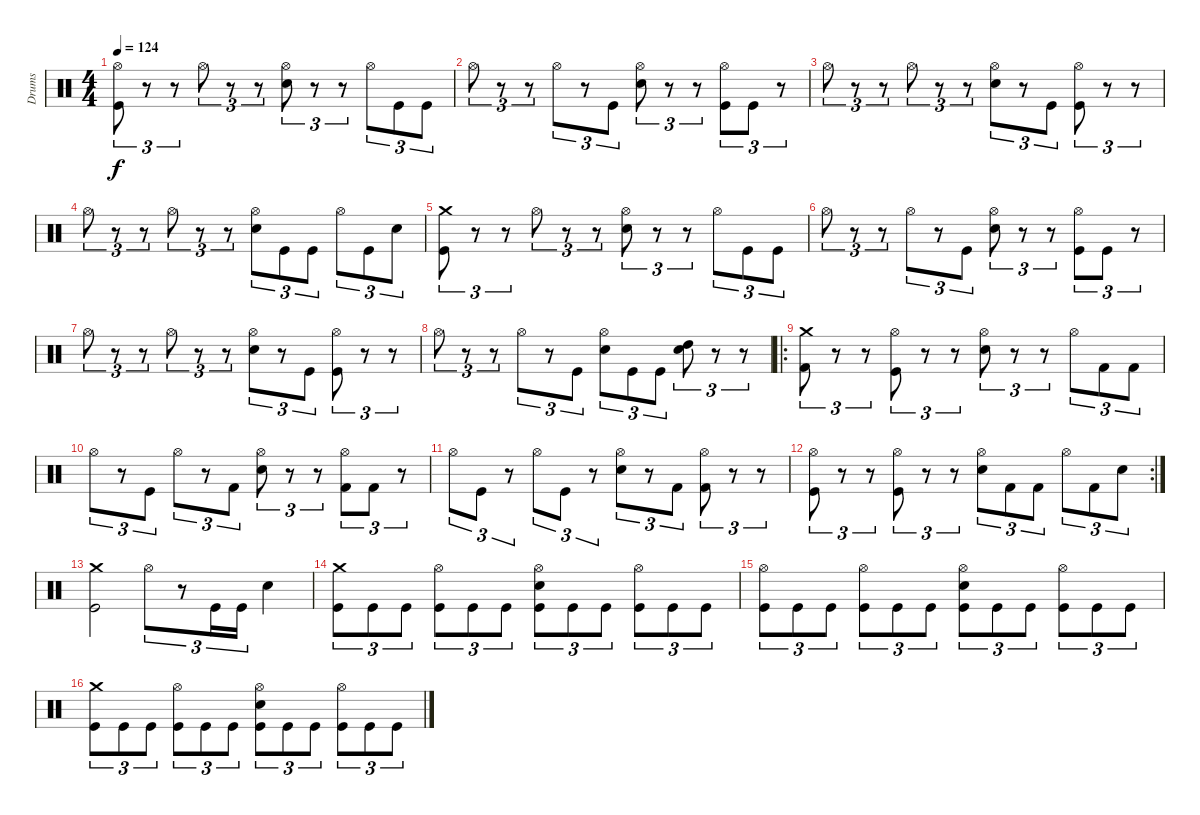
\track ("Drums" "Drums") {instrument percussion}
\staff {score}
\articulation defaults
\ts (4 4)
\tempo 124
\clef neutral
\ks c
("Hi-Hat (open)" "Kick (hit)").8{tu (3 2) dy f} r.8{tu (3 2)} r.8{tu (3 2)} "Hi-Hat (open)".8{tu (3 2)} r.8{tu (3 2)} r.8{tu (3 2)} ("Hi-Hat (open)" "Electric Snare (hit)").8{tu (3 2)} r.8{tu (3 2)} r.8{tu (3 2)} "Hi-Hat (open)".8{tu (3 2)} "Kick (hit)".8{tu (3 2)} "Kick (hit)".8{tu (3 2)} |
"Hi-Hat (open)".8{tu (3 2)} r.8{tu (3 2)} r.8{tu (3 2)} "Hi-Hat (open)".8{tu (3 2)} r.8{tu (3 2)} "Kick (hit)".8{tu (3 2)} ("Hi-Hat (open)" "Electric Snare (hit)").8{tu (3 2)} r.8{tu (3 2)} r.8{tu (3 2)} ("Hi-Hat (open)" "Kick (hit)").8{tu (3 2)} "Kick (hit)".8{tu (3 2)} r.8{tu (3 2)} |
"Hi-Hat (open)".8{tu (3 2)} r.8{tu (3 2)} r.8{tu (3 2)} "Hi-Hat (open)".8{tu (3 2)} r.8{tu (3 2)} r.8{tu (3 2)} ("Hi-Hat (open)" "Electric Snare (hit)").8{tu (3 2)} r.8{tu (3 2)} "Kick (hit)".8{tu (3 2)} ("Hi-Hat (open)" "Kick (hit)").8{tu (3 2)} r.8{tu (3 2)} r.8{tu (3 2)} |
"Hi-Hat (open)".8{tu (3 2)} r.8{tu (3 2)} r.8{tu (3 2)} "Hi-Hat (open)".8{tu (3 2)} r.8{tu (3 2)} r.8{tu (3 2)} ("Hi-Hat (open)" "Electric Snare (hit)").8{tu (3 2)} "Kick (hit)".8{tu (3 2)} "Kick (hit)".8{tu (3 2)} "Hi-Hat (open)".8{tu (3 2)} "Kick (hit)".8{tu (3 2)} "Electric Snare (hit)".8{tu (3 2)} |
("Crash medium (hit)" "Kick (hit)").8{tu (3 2)} r.8{tu (3 2)} r.8{tu (3 2)} "Hi-Hat (open)".8{tu (3 2)} r.8{tu (3 2)} r.8{tu (3 2)} ("Hi-Hat (open)" "Electric Snare (hit)").8{tu (3 2)} r.8{tu (3 2)} r.8{tu (3 2)} "Hi-Hat (open)".8{tu (3 2)} "Kick (hit)".8{tu (3 2)} "Kick (hit)".8{tu (3 2)} |
"Hi-Hat (open)".8{tu (3 2)} r.8{tu (3 2)} r.8{tu (3 2)} "Hi-Hat (open)".8{tu (3 2)} r.8{tu (3 2)} "Kick (hit)".8{tu (3 2)} ("Hi-Hat (open)" "Electric Snare (hit)").8{tu (3 2)} r.8{tu (3 2)} r.8{tu (3 2)} ("Hi-Hat (open)" "Kick (hit)").8{tu (3 2)} "Kick (hit)".8{tu (3 2)} r.8{tu (3 2)} |
"Hi-Hat (open)".8{tu (3 2)} r.8{tu (3 2)} r.8{tu (3 2)} "Hi-Hat (open)".8{tu (3 2)} r.8{tu (3 2)} r.8{tu (3 2)} ("Hi-Hat (open)" "Electric Snare (hit)").8{tu (3 2)} r.8{tu (3 2)} "Kick (hit)".8{tu (3 2)} ("Hi-Hat (open)" "Kick (hit)").8{tu (3 2)} r.8{tu (3 2)} r.8{tu (3 2)} |
"Hi-Hat (open)".8{tu (3 2)} r.8{tu (3 2)} r.8{tu (3 2)} "Hi-Hat (open)".8{tu (3 2)} r.8{tu (3 2)} "Kick (hit)".8{tu (3 2)} ("Hi-Hat (open)" "Electric Snare (hit)").8{tu (3 2)} "Kick (hit)".8{tu (3 2)} "Kick (hit)".8{tu (3 2)} ("High Tom (hit)" "Electric Snare (hit)").8{tu (3 2)} r.8{tu (3 2)} r.8{tu (3 2)} |
\ro
("Crash medium (hit)" "Kick (hit) 2").8{tu (3 2)} r.8{tu (3 2)} r.8{tu (3 2)} ("Hi-Hat (open)" "Kick (hit)").8{tu (3 2)} r.8{tu (3 2)} r.8{tu (3 2)} ("Hi-Hat (open)" "Electric Snare (hit)").8{tu (3 2)} r.8{tu (3 2)} r.8{tu (3 2)} "Hi-Hat (open)".8{tu (3 2)} "Kick (hit) 2".8{tu (3 2)} "Kick (hit) 2".8{tu (3 2)} |
"Hi-Hat (open)".8{tu (3 2)} r.8{tu (3 2)} "Kick (hit)".8{tu (3 2)} "Hi-Hat (open)".8{tu (3 2)} r.8{tu (3 2)} "Kick (hit) 2".8{tu (3 2)} ("Hi-Hat (open)" "Electric Snare (hit)").8{tu (3 2)} r.8{tu (3 2)} r.8{tu (3 2)} ("Hi-Hat (open)" "Kick (hit) 2").8{tu (3 2)} "Kick (hit) 2".8{tu (3 2)} r.8{tu (3 2)} |
"Hi-Hat (open)".8{tu (3 2)} "Kick (hit)".8{tu (3 2)} r.8{tu (3 2)} "Hi-Hat (open)".8{tu (3 2)} "Kick (hit)".8{tu (3 2)} r.8{tu (3 2)} ("Hi-Hat (open)" "Electric Snare (hit)").8{tu (3 2)} r.8{tu (3 2)} "Kick (hit) 2".8{tu (3 2)} ("Hi-Hat (open)" "Kick (hit) 2").8{tu (3 2)} r.8{tu (3 2)} r.8{tu (3 2)} |
\rc 2
("Hi-Hat (open)" "Kick (hit)").8{tu (3 2)} r.8{tu (3 2)} r.8{tu (3 2)} ("Hi-Hat (open)" "Kick (hit)").8{tu (3 2)} r.8{tu (3 2)} r.8{tu (3 2)} ("Hi-Hat (open)" "Electric Snare (hit)").8{tu (3 2)} "Kick (hit) 2".8{tu (3 2)} "Kick (hit) 2".8{tu (3 2)} "Hi-Hat (open)".8{tu (3 2)} "Kick (hit) 2".8{tu (3 2)} "Electric Snare (hit)".8{tu (3 2)} |
("Crash medium (hit)" "Kick (hit)").2 "Hi-Hat (open)".8{tu (3 2)} r.8{tu (3 2)} "Kick (hit)".16{tu (3 2)} "Kick (hit)".16{tu (3 2)} "Electric Snare (hit)".4 |
("Crash medium (hit)" "Kick (hit)").8{tu (3 2)} "Kick (hit)".8{tu (3 2)} "Kick (hit)".8{tu (3 2)} ("Hi-Hat (open)" "Kick (hit)").8{tu (3 2)} "Kick (hit)".8{tu (3 2)} "Kick (hit)".8{tu (3 2)} ("Hi-Hat (open)" "Electric Snare (hit)" "Kick (hit)").8{tu (3 2)} "Kick (hit)".8{tu (3 2)} "Kick (hit)".8{tu (3 2)} ("Hi-Hat (open)" "Kick (hit)").8{tu (3 2)} "Kick (hit)".8{tu (3 2)} "Kick (hit)".8{tu (3 2)} |
("Hi-Hat (open)" "Kick (hit)").8{tu (3 2)} "Kick (hit)".8{tu (3 2)} "Kick (hit)".8{tu (3 2)} ("Hi-Hat (open)" "Kick (hit)").8{tu (3 2)} "Kick (hit)".8{tu (3 2)} "Kick (hit)".8{tu (3 2)} ("Hi-Hat (open)" "Electric Snare (hit)" "Kick (hit)").8{tu (3 2)} "Kick (hit)".8{tu (3 2)} "Kick (hit)".8{tu (3 2)} ("Hi-Hat (open)" "Kick (hit)").8{tu (3 2)} "Kick (hit)".8{tu (3 2)} "Kick (hit)".8{tu (3 2)} |
("Crash medium (hit)" "Kick (hit)").8{tu (3 2)} "Kick (hit)".8{tu (3 2)} "Kick (hit)".8{tu (3 2)} ("Hi-Hat (open)" "Kick (hit)").8{tu (3 2)} "Kick (hit)".8{tu (3 2)} "Kick (hit)".8{tu (3 2)} ("Hi-Hat (open)" "Electric Snare (hit)" "Kick (hit)").8{tu (3 2)} "Kick (hit)".8{tu (3 2)} "Kick (hit)".8{tu (3 2)} ("Hi-Hat (open)" "Kick (hit)").8{tu (3 2)} "Kick (hit)".8{tu (3 2)} "Kick (hit)".8{tu (3 2)}
